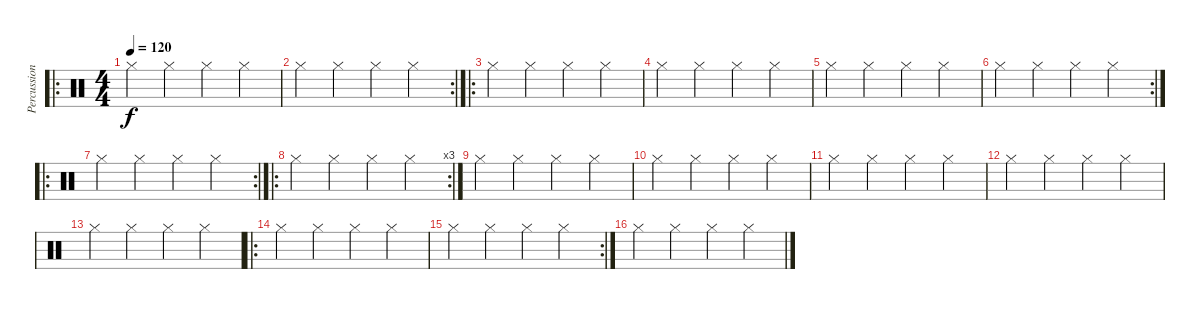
\track ("Percussioni" "Percussion") {instrument percussion}
\staff {score}
\articulation defaults
\ro
\ts (4 4)
\tempo 120
\clef neutral
\ks c "Hi-Hat (closed)".4{dy f} "Hi-Hat (closed)".4 "Hi-Hat (closed)".4 "Hi-Hat (closed)".4
|
\rc 2 "Hi-Hat (closed)".4 "Hi-Hat (closed)".4 "Hi-Hat (closed)".4 "Hi-Hat (closed)".4
|
\ro "Hi-Hat (closed)".4 "Hi-Hat (closed)".4 "Hi-Hat (closed)".4 "Hi-Hat (closed)".4
|
"Hi-Hat (closed)".4 "Hi-Hat (closed)".4 "Hi-Hat (closed)".4 "Hi-Hat (closed)".4 |
"Hi-Hat (closed)".4 "Hi-Hat (closed)".4 "Hi-Hat (closed)".4 "Hi-Hat (closed)".4 |
\rc 2 "Hi-Hat (closed)".4 "Hi-Hat (closed)".4 "Hi-Hat (closed)".4 "Hi-Hat (closed)".4
|
\ro
\rc 2 "Hi-Hat (closed)".4 "Hi-Hat (closed)".4 "Hi-Hat (closed)".4 "Hi-Hat (closed)".4
|
\ro
\rc 3 "Hi-Hat (closed)".4 "Hi-Hat (closed)".4 "Hi-Hat (closed)".4 "Hi-Hat (closed)".4
|
"Hi-Hat (closed)".4 "Hi-Hat (closed)".4 "Hi-Hat (closed)".4 "Hi-Hat (closed)".4 |
"Hi-Hat (closed)".4 "Hi-Hat (closed)".4 "Hi-Hat (closed)".4 "Hi-Hat (closed)".4 |
"Hi-Hat (closed)".4 "Hi-Hat (closed)".4 "Hi-Hat (closed)".4 "Hi-Hat (closed)".4 |
"Hi-Hat (closed)".4 "Hi-Hat (closed)".4 "Hi-Hat (closed)".4 "Hi-Hat (closed)".4 |
"Hi-Hat (closed)".4 "Hi-Hat (closed)".4 "Hi-Hat (closed)".4 "Hi-Hat (closed)".4 |
\ro "Hi-Hat (closed)".4 "Hi-Hat (closed)".4 "Hi-Hat (closed)".4 "Hi-Hat (closed)".4
|
\rc 2 "Hi-Hat (closed)".4 "Hi-Hat (closed)".4 "Hi-Hat (closed)".4 "Hi-Hat (closed)".4
|
"Hi-Hat (closed)".4 "Hi-Hat (closed)".4 "Hi-Hat (closed)".4 "Hi-Hat (closed)".4
